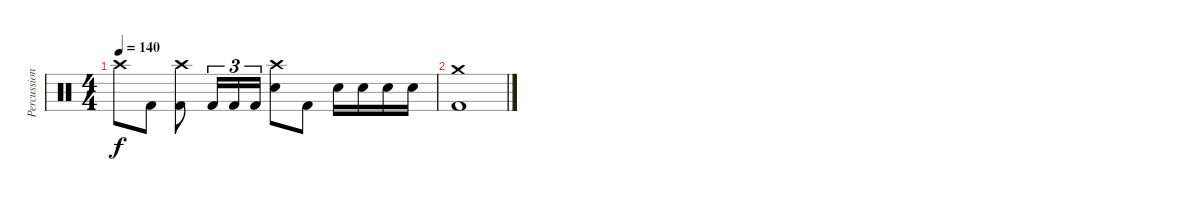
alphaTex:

\track ("Percussion" "Percussion") {instrument percussion}
\staff {score}
\articulation defaults
\ts (4 4)
\tempo 140
\clef neutral
\ks c "Crash high (hit)".8{dy f} "Kick (hit) 2".8
("Crash high (hit)" "Kick (hit) 2").8 "Kick (hit) 2".16{tu (3 2)} "Kick (hit) 2".16{tu (3 2)} "Kick (hit) 2".16{tu (3 2)} ("Crash high (hit)" "Electric Snare (hit)").8 "Kick (hit) 2".8 "Electric Snare (hit)".16 "Electric Snare (hit)".16 "Electric Snare (hit)".16 "Electric Snare (hit)".16 |
("Crash medium (hit)" "Kick (hit) 2").1
